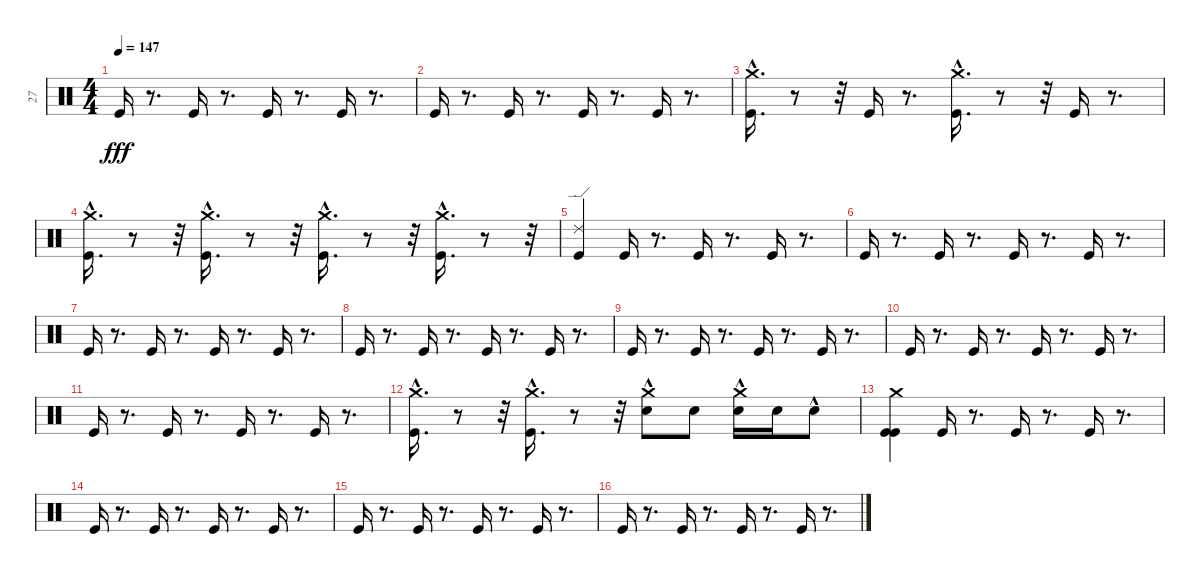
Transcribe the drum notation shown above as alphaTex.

\track ("27" "27") {instrument percussion}
\staff {score}
\articulation defaults
\ts (4 4)
\tempo 147
\clef neutral
\ks c "Kick (hit)".16{dy fff}
r.8{d} "Kick (hit)".16 r.8{d} "Kick (hit)".16 r.8{d} "Kick (hit)".16 r.8{d} |
"Kick (hit)".16 r.8{d} "Kick (hit)".16 r.8{d} "Kick (hit)".16 r.8{d} "Kick (hit)".16 r.8{d} |
("Crash medium (hit)"{hac} "Kick (hit)").16{d} r.8 r.32 "Kick (hit)".16 r.8{d} ("Crash medium (hit)"{hac} "Kick (hit)").16{d} r.8 r.32 "Kick (hit)".16 r.8{d} |
("Crash medium (hit)"{hac} "Kick (hit)").16{d} r.8 r.32 ("Crash medium (hit)"{hac} "Kick (hit)").16{d} r.8 r.32 ("Crash medium (hit)"{hac} "Kick (hit)").16{d} r.8 r.32 ("Crash medium (hit)"{hac} "Kick (hit)").16{d} r.8 r.32 |
("Ride (edge) 2" "Kick (hit)").4 "Kick (hit)".16 r.8{d} "Kick (hit)".16 r.8{d} "Kick (hit)".16 r.8{d} |
"Kick (hit)".16 r.8{d} "Kick (hit)".16 r.8{d} "Kick (hit)".16 r.8{d} "Kick (hit)".16 r.8{d} |
"Kick (hit)".16 r.8{d} "Kick (hit)".16 r.8{d} "Kick (hit)".16 r.8{d} "Kick (hit)".16 r.8{d} |
"Kick (hit)".16 r.8{d} "Kick (hit)".16 r.8{d} "Kick (hit)".16 r.8{d} "Kick (hit)".16 r.8{d} |
"Kick (hit)".16 r.8{d} "Kick (hit)".16 r.8{d} "Kick (hit)".16 r.8{d} "Kick (hit)".16 r.8{d} |
"Kick (hit)".16 r.8{d} "Kick (hit)".16 r.8{d} "Kick (hit)".16 r.8{d} "Kick (hit)".16 r.8{d} |
"Kick (hit)".16 r.8{d} "Kick (hit)".16 r.8{d} "Kick (hit)".16 r.8{d} "Kick (hit)".16 r.8{d} |
("Crash medium (hit)"{hac} "Kick (hit)").16{d} r.8 r.32 ("Crash medium (hit)"{hac} "Kick (hit)").16{d} r.8 r.32 ("Crash medium (hit)"{hac} "Snare (hit)").8 "Snare (hit)".8 ("Crash medium (hit)"{hac} "Snare (hit)").16 "Snare (hit)".16 "Snare (hit)"{hac}.8 |
("Crash medium (hit)" "Kick (hit)" "Kick (hit)").4 "Kick (hit)".16 r.8{d} "Kick (hit)".16 r.8{d} "Kick (hit)".16 r.8{d} |
"Kick (hit)".16 r.8{d} "Kick (hit)".16 r.8{d} "Kick (hit)".16 r.8{d} "Kick (hit)".16 r.8{d} |
"Kick (hit)".16 r.8{d} "Kick (hit)".16 r.8{d} "Kick (hit)".16 r.8{d} "Kick (hit)".16 r.8{d} |
"Kick (hit)".16 r.8{d} "Kick (hit)".16 r.8{d} "Kick (hit)".16 r.8{d} "Kick (hit)".16 r.8{d}
